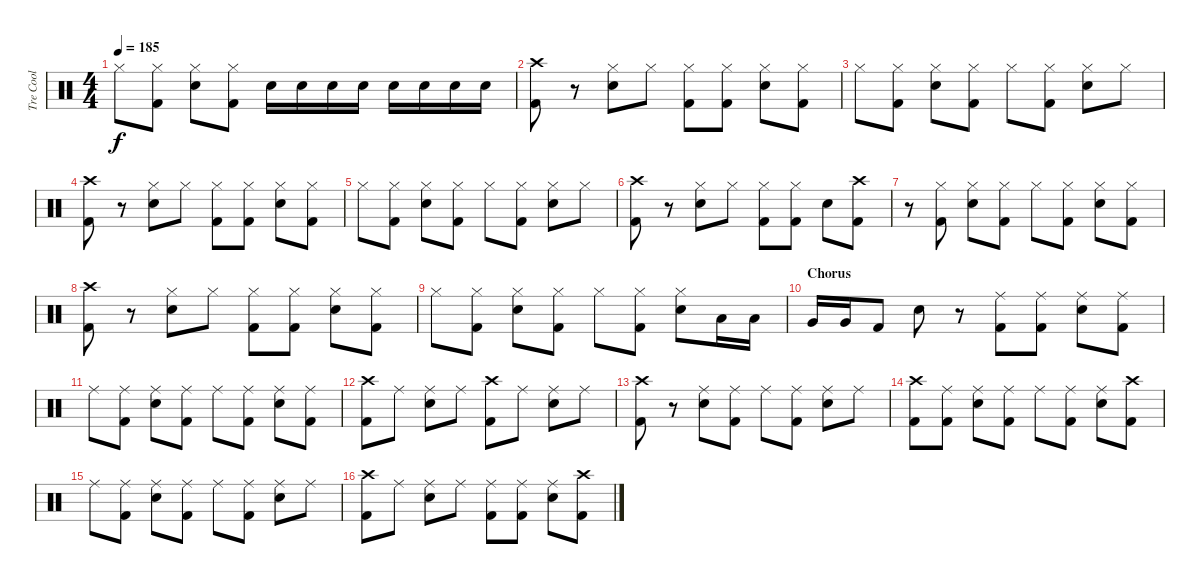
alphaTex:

\track ("Tre Cool" "Tre Cool") {instrument percussion}
\staff {score}
\articulation defaults
\ts (4 4)
\tempo 185
\clef neutral
\ks c "Hi-Hat (closed)".8{dy f}
("Hi-Hat (closed)" "Kick (hit) 2").8 ("Hi-Hat (closed)" "Electric Snare (hit)").8 ("Hi-Hat (closed)" "Kick (hit) 2").8 "Electric Snare (hit)".16 "Electric Snare (hit)".16 "Electric Snare (hit)".16 "Electric Snare (hit)".16 "Electric Snare (hit)".16 "Electric Snare (hit)".16 "Electric Snare (hit)".16 "Electric Snare (hit)".16 |
("Crash high (hit)" "Kick (hit) 2").8 r.8 ("Hi-Hat (closed)" "Electric Snare (hit)").8 "Hi-Hat (closed)".8 ("Hi-Hat (closed)" "Kick (hit) 2").8 ("Hi-Hat (closed)" "Kick (hit) 2").8 ("Hi-Hat (closed)" "Electric Snare (hit)").8 ("Hi-Hat (closed)" "Kick (hit) 2").8 |
"Hi-Hat (closed)".8 ("Hi-Hat (closed)" "Kick (hit) 2").8 ("Hi-Hat (closed)" "Electric Snare (hit)").8 ("Hi-Hat (closed)" "Kick (hit) 2").8 "Hi-Hat (closed)".8 ("Hi-Hat (closed)" "Kick (hit) 2").8 ("Hi-Hat (closed)" "Electric Snare (hit)").8 "Hi-Hat (closed)".8 |
("Crash high (hit)" "Kick (hit) 2").8 r.8 ("Hi-Hat (closed)" "Electric Snare (hit)").8 "Hi-Hat (closed)".8 ("Hi-Hat (closed)" "Kick (hit) 2").8 ("Hi-Hat (closed)" "Kick (hit) 2").8 ("Hi-Hat (closed)" "Electric Snare (hit)").8 ("Hi-Hat (closed)" "Kick (hit) 2").8 |
"Hi-Hat (closed)".8 ("Hi-Hat (closed)" "Kick (hit) 2").8 ("Hi-Hat (closed)" "Electric Snare (hit)").8 ("Hi-Hat (closed)" "Kick (hit) 2").8 "Hi-Hat (closed)".8 ("Hi-Hat (closed)" "Kick (hit) 2").8 ("Hi-Hat (closed)" "Electric Snare (hit)").8 "Hi-Hat (closed)".8 |
("Crash high (hit)" "Kick (hit) 2").8 r.8 ("Hi-Hat (closed)" "Electric Snare (hit)").8 "Hi-Hat (closed)".8 ("Hi-Hat (closed)" "Kick (hit) 2").8 ("Hi-Hat (closed)" "Kick (hit) 2").8 "Electric Snare (hit)".8 ("Crash high (hit)" "Kick (hit) 2").8 |
r.8 ("Hi-Hat (closed)" "Kick (hit) 2").8 ("Hi-Hat (closed)" "Electric Snare (hit)").8 ("Hi-Hat (closed)" "Kick (hit) 2").8 "Hi-Hat (closed)".8 ("Hi-Hat (closed)" "Kick (hit) 2").8 ("Hi-Hat (closed)" "Electric Snare (hit)").8 ("Hi-Hat (closed)" "Kick (hit) 2").8 |
("Crash high (hit)" "Kick (hit) 2").8 r.8 ("Hi-Hat (closed)" "Electric Snare (hit)").8 "Hi-Hat (closed)".8 ("Hi-Hat (closed)" "Kick (hit) 2").8 ("Hi-Hat (closed)" "Kick (hit) 2").8 ("Hi-Hat (closed)" "Electric Snare (hit)").8 ("Hi-Hat (closed)" "Kick (hit) 2").8 |
"Hi-Hat (closed)".8 ("Hi-Hat (closed)" "Kick (hit) 2").8 ("Hi-Hat (closed)" "Electric Snare (hit)").8 ("Hi-Hat (closed)" "Kick (hit) 2").8 "Hi-Hat (closed)".8 ("Hi-Hat (closed)" "Kick (hit) 2").8 ("Hi-Hat (closed)" "Electric Snare (hit)").8 "Low Tom (hit)".16 "Low Tom (hit)".16 |
\section ("" "Chorus")
"Very Low Tom (hit)".16 "Very Low Tom (hit)".16 "Kick (hit) 2".8 "Electric Snare (hit)".8 r.8 ("Ride (middle)" "Kick (hit) 2").8 ("Ride (middle)" "Kick (hit) 2").8 ("Ride (middle)" "Electric Snare (hit)").8 ("Ride (middle)" "Kick (hit) 2").8 |
"Ride (middle)".8 ("Ride (middle)" "Kick (hit) 2").8 ("Ride (middle)" "Electric Snare (hit)").8 ("Ride (middle)" "Kick (hit) 2").8 "Ride (middle)".8 ("Ride (middle)" "Kick (hit) 2").8 ("Ride (middle)" "Electric Snare (hit)").8 ("Ride (middle)" "Kick (hit) 2").8 |
("Crash high (hit)" "Kick (hit) 2").8 "Ride (middle)".8 ("Ride (middle)" "Electric Snare (hit)").8 "Ride (middle)".8 ("Crash high (hit)" "Kick (hit) 2").8 "Ride (middle)".8 ("Ride (middle)" "Electric Snare (hit)").8 "Ride (middle)".8 |
("Crash high (hit)" "Kick (hit) 2").8 r.8 ("Ride (middle)" "Electric Snare (hit)").8 ("Ride (middle)" "Kick (hit) 2").8 "Ride (middle)".8 ("Ride (middle)" "Kick (hit) 2").8 ("Ride (middle)" "Electric Snare (hit)").8 "Ride (middle)".8 |
("Crash high (hit)" "Kick (hit) 2").8 ("Ride (middle)" "Kick (hit) 2").8 ("Ride (middle)" "Electric Snare (hit)").8 ("Ride (middle)" "Kick (hit) 2").8 "Ride (middle)".8 ("Ride (middle)" "Kick (hit) 2").8 ("Ride (middle)" "Electric Snare (hit)").8 ("Crash high (hit)" "Kick (hit) 2").8 |
"Ride (middle)".8 ("Ride (middle)" "Kick (hit) 2").8 ("Ride (middle)" "Electric Snare (hit)").8 ("Ride (middle)" "Kick (hit) 2").8 "Ride (middle)".8 ("Ride (middle)" "Kick (hit) 2").8 ("Ride (middle)" "Electric Snare (hit)").8 "Ride (middle)".8 |
("Crash high (hit)" "Kick (hit) 2").8 "Ride (middle)".8 ("Ride (middle)" "Electric Snare (hit)").8 "Ride (middle)".8 ("Ride (middle)" "Kick (hit) 2").8 ("Ride (middle)" "Kick (hit) 2").8 ("Ride (middle)" "Electric Snare (hit)").8 ("Crash high (hit)" "Kick (hit) 2").8
